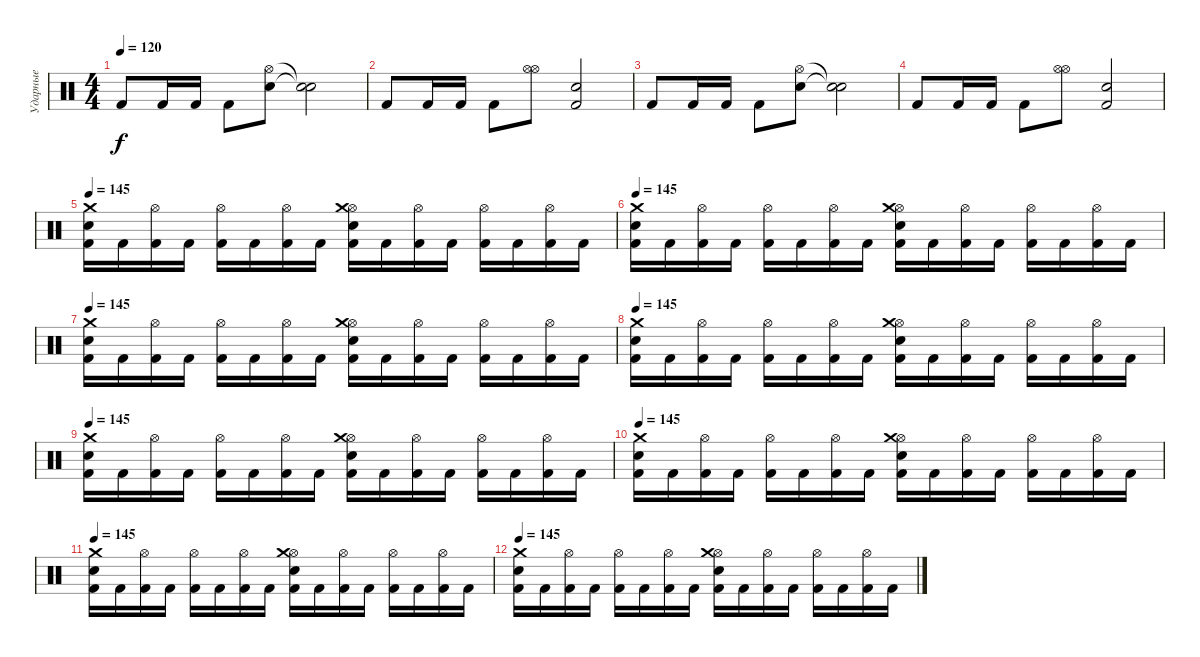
\track ("Ударные" "Ударные") {instrument percussion}
\staff {score}
\articulation defaults
\ts (4 4)
\tempo 120
\clef neutral
\ks c "Kick (hit) 2".8{dy f} "Kick (hit) 2".16 "Kick (hit) 2".16 "Kick (hit) 2".8
("Electric Snare (hit)" "Hi-Hat (open)").8 ("Snare (hit)"{t} "Snare (hit)"{t}).2 |
"Kick (hit) 2".8 "Kick (hit) 2".16 "Kick (hit) 2".16 "Kick (hit) 2".8 ("Hi-Hat (open)" "Hi-Hat (open)").8 ("Electric Snare (hit)" "Kick (hit) 2").2 |
"Kick (hit) 2".8 "Kick (hit) 2".16 "Kick (hit) 2".16 "Kick (hit) 2".8 ("Electric Snare (hit)" "Hi-Hat (open)").8 ("Snare (hit)"{t} "Snare (hit)"{t}).2 |
"Kick (hit) 2".8 "Kick (hit) 2".16 "Kick (hit) 2".16 "Kick (hit) 2".8 ("Hi-Hat (open)" "Hi-Hat (open)").8 ("Electric Snare (hit)" "Kick (hit) 2").2 |
\tempo 145
("Kick (hit) 2" "Electric Snare (hit)" "Crash medium (hit)").16 "Kick (hit) 2".16 ("Kick (hit) 2" "Hi-Hat (open)").16 "Kick (hit) 2".16 ("Kick (hit) 2" "Hi-Hat (open)").16 "Kick (hit) 2".16 ("Kick (hit) 2" "Hi-Hat (open)").16 "Kick (hit) 2".16 ("Kick (hit) 2" "Electric Snare (hit)" "Hi-Hat (open)" "Crash medium (hit)").16 "Kick (hit) 2".16 ("Kick (hit) 2" "Hi-Hat (open)").16 "Kick (hit) 2".16 ("Kick (hit) 2" "Hi-Hat (open)").16 "Kick (hit) 2".16 ("Kick (hit) 2" "Hi-Hat (open)").16 "Kick (hit) 2".16 |
\tempo 145
("Kick (hit) 2" "Electric Snare (hit)" "Crash medium (hit)").16 "Kick (hit) 2".16 ("Kick (hit) 2" "Hi-Hat (open)").16 "Kick (hit) 2".16 ("Kick (hit) 2" "Hi-Hat (open)").16 "Kick (hit) 2".16 ("Kick (hit) 2" "Hi-Hat (open)").16 "Kick (hit) 2".16 ("Kick (hit) 2" "Electric Snare (hit)" "Hi-Hat (open)" "Crash medium (hit)").16 "Kick (hit) 2".16 ("Kick (hit) 2" "Hi-Hat (open)").16 "Kick (hit) 2".16 ("Kick (hit) 2" "Hi-Hat (open)").16 "Kick (hit) 2".16 ("Kick (hit) 2" "Hi-Hat (open)").16 "Kick (hit) 2".16 |
\tempo 145
("Kick (hit) 2" "Electric Snare (hit)" "Crash medium (hit)").16 "Kick (hit) 2".16 ("Kick (hit) 2" "Hi-Hat (open)").16 "Kick (hit) 2".16 ("Kick (hit) 2" "Hi-Hat (open)").16 "Kick (hit) 2".16 ("Kick (hit) 2" "Hi-Hat (open)").16 "Kick (hit) 2".16 ("Kick (hit) 2" "Electric Snare (hit)" "Hi-Hat (open)" "Crash medium (hit)").16 "Kick (hit) 2".16 ("Kick (hit) 2" "Hi-Hat (open)").16 "Kick (hit) 2".16 ("Kick (hit) 2" "Hi-Hat (open)").16 "Kick (hit) 2".16 ("Kick (hit) 2" "Hi-Hat (open)").16 "Kick (hit) 2".16 |
\tempo 145
("Kick (hit) 2" "Electric Snare (hit)" "Crash medium (hit)").16 "Kick (hit) 2".16 ("Kick (hit) 2" "Hi-Hat (open)").16 "Kick (hit) 2".16 ("Kick (hit) 2" "Hi-Hat (open)").16 "Kick (hit) 2".16 ("Kick (hit) 2" "Hi-Hat (open)").16 "Kick (hit) 2".16 ("Kick (hit) 2" "Electric Snare (hit)" "Hi-Hat (open)" "Crash medium (hit)").16 "Kick (hit) 2".16 ("Kick (hit) 2" "Hi-Hat (open)").16 "Kick (hit) 2".16 ("Kick (hit) 2" "Hi-Hat (open)").16 "Kick (hit) 2".16 ("Kick (hit) 2" "Hi-Hat (open)").16 "Kick (hit) 2".16 |
\tempo 145
("Kick (hit) 2" "Electric Snare (hit)" "Crash medium (hit)").16 "Kick (hit) 2".16 ("Kick (hit) 2" "Hi-Hat (open)").16 "Kick (hit) 2".16 ("Kick (hit) 2" "Hi-Hat (open)").16 "Kick (hit) 2".16 ("Kick (hit) 2" "Hi-Hat (open)").16 "Kick (hit) 2".16 ("Kick (hit) 2" "Electric Snare (hit)" "Hi-Hat (open)" "Crash medium (hit)").16 "Kick (hit) 2".16 ("Kick (hit) 2" "Hi-Hat (open)").16 "Kick (hit) 2".16 ("Kick (hit) 2" "Hi-Hat (open)").16 "Kick (hit) 2".16 ("Kick (hit) 2" "Hi-Hat (open)").16 "Kick (hit) 2".16 |
\tempo 145
("Kick (hit) 2" "Electric Snare (hit)" "Crash medium (hit)").16 "Kick (hit) 2".16 ("Kick (hit) 2" "Hi-Hat (open)").16 "Kick (hit) 2".16 ("Kick (hit) 2" "Hi-Hat (open)").16 "Kick (hit) 2".16 ("Kick (hit) 2" "Hi-Hat (open)").16 "Kick (hit) 2".16 ("Kick (hit) 2" "Electric Snare (hit)" "Hi-Hat (open)" "Crash medium (hit)").16 "Kick (hit) 2".16 ("Kick (hit) 2" "Hi-Hat (open)").16 "Kick (hit) 2".16 ("Kick (hit) 2" "Hi-Hat (open)").16 "Kick (hit) 2".16 ("Kick (hit) 2" "Hi-Hat (open)").16 "Kick (hit) 2".16 |
\tempo 145
("Kick (hit) 2" "Electric Snare (hit)" "Crash medium (hit)").16 "Kick (hit) 2".16 ("Kick (hit) 2" "Hi-Hat (open)").16 "Kick (hit) 2".16 ("Kick (hit) 2" "Hi-Hat (open)").16 "Kick (hit) 2".16 ("Kick (hit) 2" "Hi-Hat (open)").16 "Kick (hit) 2".16 ("Kick (hit) 2" "Electric Snare (hit)" "Hi-Hat (open)" "Crash medium (hit)").16 "Kick (hit) 2".16 ("Kick (hit) 2" "Hi-Hat (open)").16 "Kick (hit) 2".16 ("Kick (hit) 2" "Hi-Hat (open)").16 "Kick (hit) 2".16 ("Kick (hit) 2" "Hi-Hat (open)").16 "Kick (hit) 2".16 |
\tempo 145
("Kick (hit) 2" "Electric Snare (hit)" "Crash medium (hit)").16 "Kick (hit) 2".16 ("Kick (hit) 2" "Hi-Hat (open)").16 "Kick (hit) 2".16 ("Kick (hit) 2" "Hi-Hat (open)").16 "Kick (hit) 2".16 ("Kick (hit) 2" "Hi-Hat (open)").16 "Kick (hit) 2".16 ("Kick (hit) 2" "Electric Snare (hit)" "Hi-Hat (open)" "Crash medium (hit)").16 "Kick (hit) 2".16 ("Kick (hit) 2" "Hi-Hat (open)").16 "Kick (hit) 2".16 ("Kick (hit) 2" "Hi-Hat (open)").16 "Kick (hit) 2".16 ("Kick (hit) 2" "Hi-Hat (open)").16 "Kick (hit) 2".16
